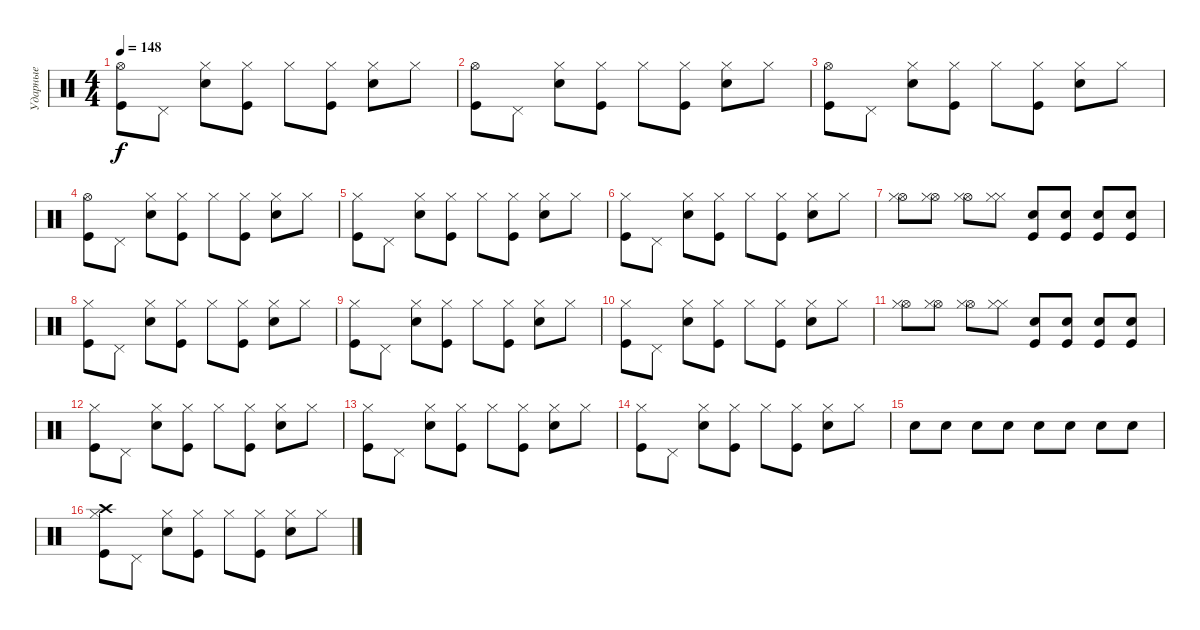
\track ("Ударные" "Ударные") {instrument percussion}
\staff {score}
\articulation defaults
\ts (4 4)
\tempo 148
\clef neutral
\ks c
("Hi-Hat (open)" "Kick (hit)").8{dy f} "Pedal Hi-Hat (hit)".8 ("Hi-Hat (closed)" "Snare (hit) 2").8 ("Hi-Hat (closed)" "Kick (hit)").8 "Hi-Hat (closed)".8 ("Hi-Hat (closed)" "Kick (hit)").8 ("Hi-Hat (closed)" "Snare (hit) 2").8 "Hi-Hat (closed)".8 |
("Hi-Hat (open)" "Kick (hit)").8 "Pedal Hi-Hat (hit)".8 ("Hi-Hat (closed)" "Snare (hit) 2").8 ("Hi-Hat (closed)" "Kick (hit)").8 "Hi-Hat (closed)".8 ("Hi-Hat (closed)" "Kick (hit)").8 ("Hi-Hat (closed)" "Snare (hit) 2").8 "Hi-Hat (closed)".8 |
("Hi-Hat (open)" "Kick (hit)").8 "Pedal Hi-Hat (hit)".8 ("Hi-Hat (closed)" "Snare (hit) 2").8 ("Hi-Hat (closed)" "Kick (hit)").8 "Hi-Hat (closed)".8 ("Hi-Hat (closed)" "Kick (hit)").8 ("Hi-Hat (closed)" "Snare (hit) 2").8 "Hi-Hat (closed)".8 |
("Hi-Hat (open)" "Kick (hit)").8 "Pedal Hi-Hat (hit)".8 ("Hi-Hat (closed)" "Snare (hit) 2").8 ("Hi-Hat (closed)" "Kick (hit)").8 "Hi-Hat (closed)".8 ("Hi-Hat (closed)" "Kick (hit)").8 ("Hi-Hat (closed)" "Snare (hit) 2").8 "Hi-Hat (closed)".8 |
("Hi-Hat (closed)" "Kick (hit)").8 "Pedal Hi-Hat (hit)".8 ("Hi-Hat (closed)" "Snare (hit) 2").8 ("Hi-Hat (closed)" "Kick (hit)").8 "Hi-Hat (closed)".8 ("Hi-Hat (closed)" "Kick (hit)").8 ("Hi-Hat (closed)" "Snare (hit) 2").8 "Hi-Hat (closed)".8 |
("Hi-Hat (closed)" "Kick (hit)").8 "Pedal Hi-Hat (hit)".8 ("Hi-Hat (closed)" "Snare (hit) 2").8 ("Hi-Hat (closed)" "Kick (hit)").8 "Hi-Hat (closed)".8 ("Hi-Hat (closed)" "Kick (hit)").8 ("Hi-Hat (closed)" "Snare (hit) 2").8 "Hi-Hat (closed)".8 |
("Hi-Hat (open)" "Hi-Hat (closed)").8 ("Hi-Hat (open)" "Hi-Hat (closed)").8 ("Hi-Hat (open)" "Hi-Hat (closed)").8 ("Hi-Hat (closed)" "Hi-Hat (closed)").8 ("Snare (hit) 2" "Kick (hit)").8 ("Snare (hit) 2" "Kick (hit)").8 ("Snare (hit) 2" "Kick (hit)").8 ("Snare (hit) 2" "Kick (hit)").8 |
("Hi-Hat (closed)" "Kick (hit)").8 "Pedal Hi-Hat (hit)".8 ("Hi-Hat (closed)" "Snare (hit) 2").8 ("Hi-Hat (closed)" "Kick (hit)").8 "Hi-Hat (closed)".8 ("Hi-Hat (closed)" "Kick (hit)").8 ("Hi-Hat (closed)" "Snare (hit) 2").8 "Hi-Hat (closed)".8 |
("Hi-Hat (closed)" "Kick (hit)").8 "Pedal Hi-Hat (hit)".8 ("Hi-Hat (closed)" "Snare (hit) 2").8 ("Hi-Hat (closed)" "Kick (hit)").8 "Hi-Hat (closed)".8 ("Hi-Hat (closed)" "Kick (hit)").8 ("Hi-Hat (closed)" "Snare (hit) 2").8 "Hi-Hat (closed)".8 |
("Hi-Hat (closed)" "Kick (hit)").8 "Pedal Hi-Hat (hit)".8 ("Hi-Hat (closed)" "Snare (hit) 2").8 ("Hi-Hat (closed)" "Kick (hit)").8 "Hi-Hat (closed)".8 ("Hi-Hat (closed)" "Kick (hit)").8 ("Hi-Hat (closed)" "Snare (hit) 2").8 "Hi-Hat (closed)".8 |
("Hi-Hat (open)" "Hi-Hat (closed)").8 ("Hi-Hat (open)" "Hi-Hat (closed)").8 ("Hi-Hat (open)" "Hi-Hat (closed)").8 ("Hi-Hat (closed)" "Hi-Hat (closed)").8 ("Snare (hit) 2" "Kick (hit)").8 ("Snare (hit) 2" "Kick (hit)").8 ("Snare (hit) 2" "Kick (hit)").8 ("Snare (hit) 2" "Kick (hit)").8 |
("Hi-Hat (closed)" "Kick (hit)").8 "Pedal Hi-Hat (hit)".8 ("Hi-Hat (closed)" "Snare (hit) 2").8 ("Hi-Hat (closed)" "Kick (hit)").8 "Hi-Hat (closed)".8 ("Hi-Hat (closed)" "Kick (hit)").8 ("Hi-Hat (closed)" "Snare (hit) 2").8 "Hi-Hat (closed)".8 |
("Hi-Hat (closed)" "Kick (hit)").8 "Pedal Hi-Hat (hit)".8 ("Hi-Hat (closed)" "Snare (hit) 2").8 ("Hi-Hat (closed)" "Kick (hit)").8 "Hi-Hat (closed)".8 ("Hi-Hat (closed)" "Kick (hit)").8 ("Hi-Hat (closed)" "Snare (hit) 2").8 "Hi-Hat (closed)".8 |
("Hi-Hat (closed)" "Kick (hit)").8 "Pedal Hi-Hat (hit)".8 ("Hi-Hat (closed)" "Snare (hit) 2").8 ("Hi-Hat (closed)" "Kick (hit)").8 "Hi-Hat (closed)".8 ("Hi-Hat (closed)" "Kick (hit)").8 ("Hi-Hat (closed)" "Snare (hit) 2").8 "Hi-Hat (closed)".8 |
"Snare (hit) 2".8 "Snare (hit) 2".8 "Snare (hit) 2".8 "Snare (hit) 2".8 "Snare (hit) 2".8 "Snare (hit) 2".8 "Snare (hit) 2".8 "Snare (hit) 2".8 |
("Hi-Hat (closed)" "Crash high (hit)" "Kick (hit)").8 "Pedal Hi-Hat (hit)".8 ("Hi-Hat (closed)" "Snare (hit) 2").8 ("Hi-Hat (closed)" "Kick (hit)").8 "Hi-Hat (closed)".8 ("Hi-Hat (closed)" "Kick (hit)").8 ("Hi-Hat (closed)" "Snare (hit) 2").8 "Hi-Hat (closed)".8
